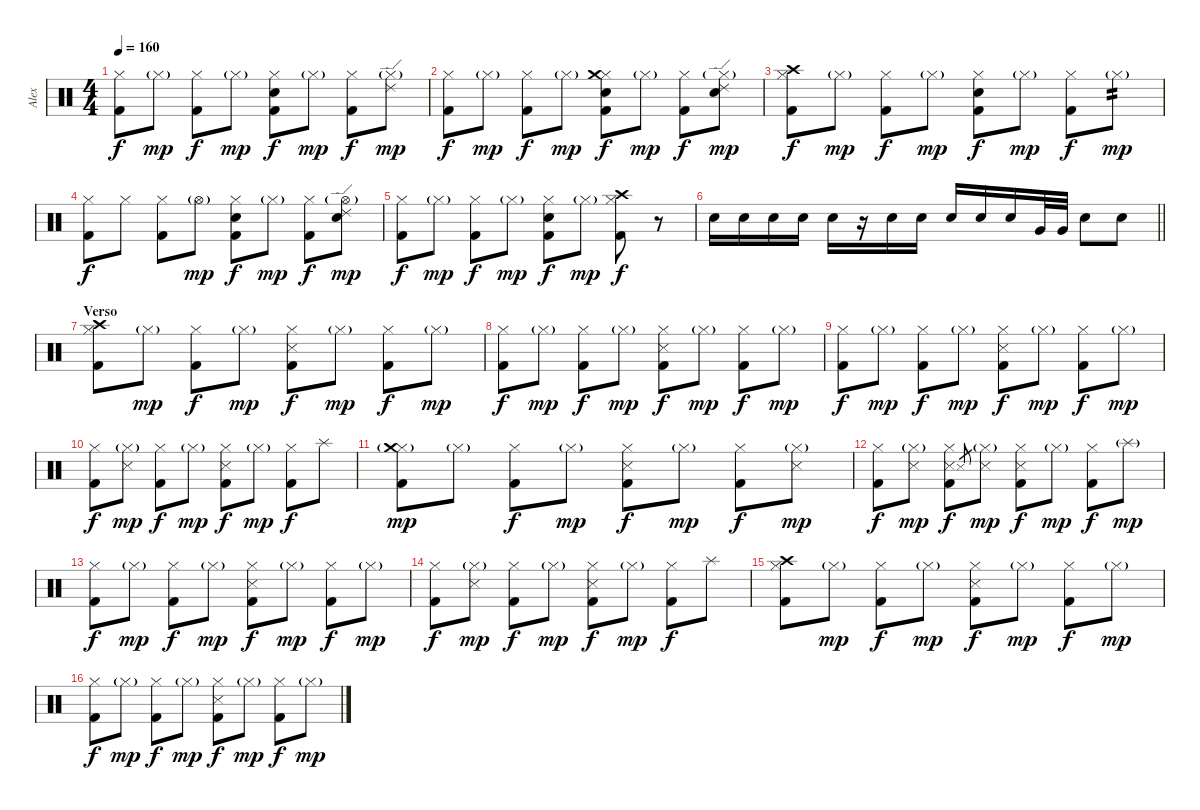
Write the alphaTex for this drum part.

\track ("Alex" "Alex") {instrument percussion}
\staff {score}
\articulation defaults
\ts (4 4)
\tempo 160
\clef neutral
\ks c
("Kick (hit) 2" "Hi-Hat (closed)").8{dy f} "Hi-Hat (closed)"{g}.8{dy mp} ("Kick (hit) 2" "Hi-Hat (closed)").8{dy f} "Hi-Hat (closed)"{g}.8{dy mp} ("Kick (hit) 2" "Hi-Hat (closed)" "Snare (hit) 2").8{dy f} "Hi-Hat (closed)"{g}.8{dy mp} ("Kick (hit) 2" "Hi-Hat (closed)").8{dy f} ("Hi-Hat (closed)"{g} "Ride (edge) 2").8{dy mp} |
("Kick (hit) 2" "Hi-Hat (closed)").8{dy f} "Hi-Hat (closed)"{g}.8{dy mp} ("Kick (hit) 2" "Hi-Hat (closed)").8{dy f} "Hi-Hat (closed)"{g}.8{dy mp} ("Kick (hit) 2" "Hi-Hat (closed)" "Crash medium (hit)" "Snare (hit) 2").8{dy f} "Hi-Hat (closed)"{g}.8{dy mp} ("Kick (hit) 2" "Hi-Hat (closed)").8{dy f} ("Hi-Hat (closed)"{g} "Ride (edge) 2" "Snare (hit) 2").8{dy mp} |
("Kick (hit) 2" "Hi-Hat (closed)" "Crash high (hit)").8{dy f} "Hi-Hat (closed)"{g}.8{dy mp} ("Kick (hit) 2" "Hi-Hat (closed)").8{dy f} "Hi-Hat (closed)"{g}.8{dy mp} ("Kick (hit) 2" "Hi-Hat (closed)" "Snare (hit) 2").8{dy f} "Hi-Hat (closed)"{g}.8{dy mp} ("Kick (hit) 2" "Hi-Hat (closed)").8{dy f} "Hi-Hat (closed)"{g}.8{tp 2 dy mp} |
("Kick (hit) 2" "Hi-Hat (closed)").8{dy f} "Hi-Hat (closed)".8 ("Kick (hit) 2" "Hi-Hat (closed)").8 "Hi-Hat (open)"{g}.8{dy mp} ("Kick (hit) 2" "Hi-Hat (closed)" "Snare (hit) 2").8{dy f} "Hi-Hat (closed)"{g}.8{dy mp} ("Kick (hit) 2" "Hi-Hat (closed)").8{dy f} ("Hi-Hat (open)"{g} "Ride (edge) 2" "Snare (hit) 2").8{dy mp} |
("Kick (hit) 2" "Hi-Hat (closed)").8{dy f} "Hi-Hat (closed)"{g}.8{dy mp} ("Kick (hit) 2" "Hi-Hat (closed)").8{dy f} "Hi-Hat (closed)"{g}.8{dy mp} ("Kick (hit) 2" "Hi-Hat (closed)" "Snare (hit) 2").8{dy f} "Hi-Hat (closed)"{g}.8{dy mp} ("Kick (hit) 2" "Hi-Hat (closed)" "Crash high (hit)").8{dy f} r.8 |
\barLineRight lightlight "Snare (hit) 2".16 "Snare (hit) 2".16 "Snare (hit) 2".16 "Snare (hit) 2".16 "Snare (hit) 2".16
r.16 "Snare (hit) 2".16 "Snare (hit) 2".16 "Snare (hit) 2".16 "Snare (hit) 2".16 "Snare (hit) 2".16 "Very Low Tom (hit)".32 "Very Low Tom (hit)".32 "Snare (hit) 2".8 "Snare (hit) 2".8 |
\section ("" "Verso")
("Kick (hit) 2" "Hi-Hat (closed)" "Crash high (hit)").8 "Hi-Hat (closed)"{g}.8{dy mp} ("Kick (hit) 2" "Hi-Hat (closed)").8{dy f} "Hi-Hat (closed)"{g}.8{dy mp} ("Kick (hit) 2" "Hi-Hat (closed)" "Snare (side stick) 3").8{dy f} "Hi-Hat (closed)"{g}.8{dy mp} ("Kick (hit) 2" "Hi-Hat (closed)").8{dy f} "Hi-Hat (closed)"{g}.8{dy mp} |
("Kick (hit) 2" "Hi-Hat (closed)").8{dy f} "Hi-Hat (closed)"{g}.8{dy mp} ("Kick (hit) 2" "Hi-Hat (closed)").8{dy f} "Hi-Hat (closed)"{g}.8{dy mp} ("Kick (hit) 2" "Hi-Hat (closed)" "Snare (side stick) 3").8{dy f} "Hi-Hat (closed)"{g}.8{dy mp} ("Kick (hit) 2" "Hi-Hat (closed)").8{dy f} "Hi-Hat (closed)"{g}.8{dy mp} |
("Kick (hit) 2" "Hi-Hat (closed)").8{dy f} "Hi-Hat (closed)"{g}.8{dy mp} ("Kick (hit) 2" "Hi-Hat (closed)").8{dy f} "Hi-Hat (closed)"{g}.8{dy mp} ("Kick (hit) 2" "Hi-Hat (closed)" "Snare (side stick) 3").8{dy f} "Hi-Hat (closed)"{g}.8{dy mp} ("Kick (hit) 2" "Hi-Hat (closed)").8{dy f} "Hi-Hat (closed)"{g}.8{dy mp} |
("Kick (hit) 2" "Hi-Hat (closed)").8{dy f} ("Hi-Hat (closed)"{g} "Snare (side stick) 3").8{dy mp} ("Kick (hit) 2" "Hi-Hat (closed)").8{dy f} "Hi-Hat (closed)"{g}.8{dy mp} ("Kick (hit) 2" "Hi-Hat (closed)" "Snare (side stick) 3").8{dy f} "Hi-Hat (closed)"{g}.8{dy mp} ("Kick (hit) 2" "Hi-Hat (closed)").8{dy f} "Splash (hit)".8 |
("Kick (hit) 2" "Hi-Hat (closed)" "Crash medium (hit)"{g}).8{dy mp} "Hi-Hat (closed)"{g}.8 ("Kick (hit) 2" "Hi-Hat (closed)").8{dy f} "Hi-Hat (closed)"{g}.8{dy mp} ("Kick (hit) 2" "Hi-Hat (closed)" "Snare (side stick) 3").8{dy f} "Hi-Hat (closed)"{g}.8{dy mp} ("Kick (hit) 2" "Hi-Hat (closed)").8{dy f} ("Hi-Hat (closed)"{g} "Snare (side stick) 3").8{dy mp} |
("Kick (hit) 2" "Hi-Hat (closed)").8{dy f} ("Hi-Hat (closed)"{g} "Snare (side stick) 3").8{dy mp} ("Kick (hit) 2" "Hi-Hat (closed)" "Snare (side stick) 3").8{dy f} "Snare (side stick) 3".8{gr} ("Hi-Hat (closed)"{g} "Snare (side stick) 3").8{dy mp} ("Kick (hit) 2" "Hi-Hat (closed)" "Snare (side stick) 3").8{dy f} "Hi-Hat (closed)"{g}.8{dy mp} ("Kick (hit) 2" "Hi-Hat (closed)").8{dy f} "Splash (hit)"{g}.8{dy mp} |
("Kick (hit) 2" "Hi-Hat (closed)").8{dy f} "Hi-Hat (closed)"{g}.8{dy mp} ("Kick (hit) 2" "Hi-Hat (closed)").8{dy f} "Hi-Hat (closed)"{g}.8{dy mp} ("Kick (hit) 2" "Hi-Hat (closed)" "Snare (side stick) 3").8{dy f} "Hi-Hat (closed)"{g}.8{dy mp} ("Kick (hit) 2" "Hi-Hat (closed)").8{dy f} "Hi-Hat (closed)"{g}.8{dy mp} |
("Kick (hit) 2" "Hi-Hat (closed)").8{dy f} ("Hi-Hat (closed)"{g} "Snare (side stick) 3").8{dy mp} ("Kick (hit) 2" "Hi-Hat (closed)").8{dy f} "Hi-Hat (closed)"{g}.8{dy mp} ("Kick (hit) 2" "Hi-Hat (closed)" "Snare (side stick) 3").8{dy f} "Hi-Hat (closed)"{g}.8{dy mp} ("Kick (hit) 2" "Hi-Hat (closed)").8{dy f} "Splash (hit)".8 |
("Kick (hit) 2" "Hi-Hat (closed)" "Crash high (hit)").8 "Hi-Hat (closed)"{g}.8{dy mp} ("Kick (hit) 2" "Hi-Hat (closed)").8{dy f} "Hi-Hat (closed)"{g}.8{dy mp} ("Kick (hit) 2" "Hi-Hat (closed)" "Snare (side stick) 3").8{dy f} "Hi-Hat (closed)"{g}.8{dy mp} ("Kick (hit) 2" "Hi-Hat (closed)").8{dy f} "Hi-Hat (closed)"{g}.8{dy mp} |
("Kick (hit) 2" "Hi-Hat (closed)").8{dy f} "Hi-Hat (closed)"{g}.8{dy mp} ("Kick (hit) 2" "Hi-Hat (closed)").8{dy f} "Hi-Hat (closed)"{g}.8{dy mp} ("Kick (hit) 2" "Hi-Hat (closed)" "Snare (side stick) 3").8{dy f} "Hi-Hat (closed)"{g}.8{dy mp} ("Kick (hit) 2" "Hi-Hat (closed)").8{dy f} "Hi-Hat (closed)"{g}.8{dy mp}
